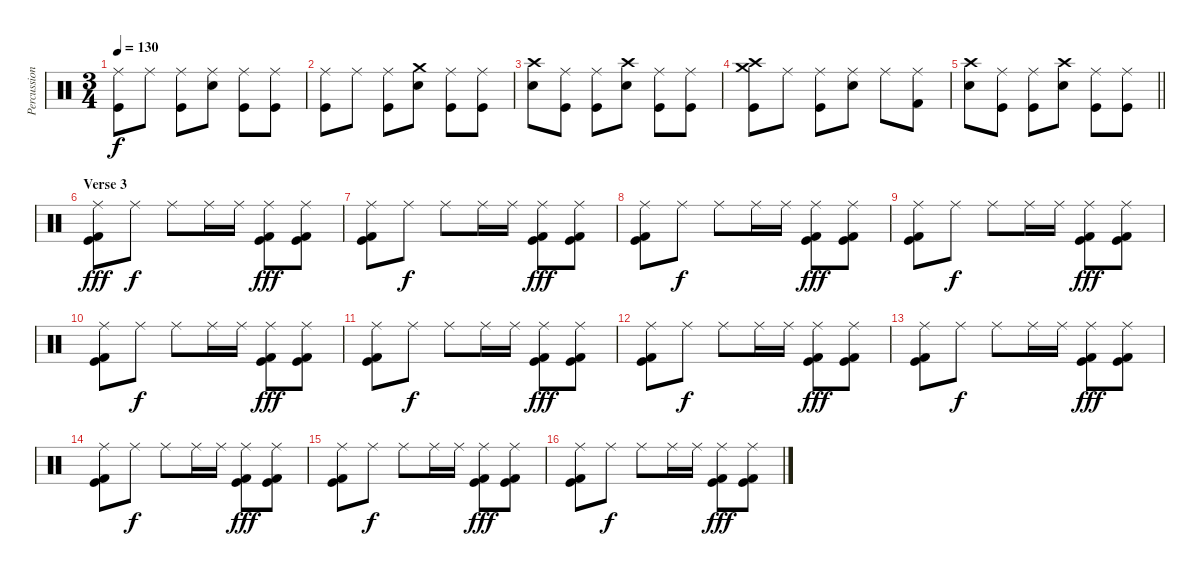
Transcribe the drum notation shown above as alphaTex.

\track ("Percussion" "Percussion") {instrument percussion}
\staff {score}
\articulation defaults
\ts (3 4)
\tempo 130
\clef neutral
\ks c
("Ride (middle)" "Kick (hit)").8{dy f} "Ride (middle)".8 ("Ride (middle)" "Kick (hit)").8 ("Ride (middle)" "Snare (hit) 2").8 ("Ride (middle)" "Kick (hit)").8 ("Ride (middle)" "Kick (hit)").8 |
("Ride (middle)" "Kick (hit)").8 "Ride (middle)".8 ("Ride (middle)" "Kick (hit)").8 ("Crash medium (hit)" "Snare (hit) 2").8 ("Ride (middle)" "Kick (hit)").8 ("Ride (middle)" "Kick (hit)").8 |
("Crash high (hit)" "Snare (hit) 2").8 ("Ride (middle)" "Kick (hit)").8 ("Ride (middle)" "Kick (hit)").8 ("Crash high (hit)" "Snare (hit) 2").8 ("Ride (middle)" "Kick (hit)").8 ("Ride (middle)" "Kick (hit)").8 |
("Crash medium (hit)" "Crash high (hit)" "Kick (hit)").8 "Ride (middle)".8 ("Ride (middle)" "Kick (hit)").8 ("Ride (middle)" "Snare (hit) 2").8 "Ride (middle)".8 ("Ride (middle)" "Kick (hit) 2").8 |
\barLineRight lightlight
("Crash high (hit)" "Snare (hit) 2").8 ("Ride (middle)" "Kick (hit)").8 ("Ride (middle)" "Kick (hit)").8 ("Crash high (hit)" "Snare (hit) 2").8 ("Ride (middle)" "Kick (hit)").8 ("Ride (middle)" "Kick (hit)").8 |
\section ("" "Verse 3")
("Ride (middle)" "Kick (hit)" "Kick (hit) 2").8{dy fff} "Ride (middle)".8{dy f} "Ride (middle)".8 "Ride (middle)".16 "Ride (middle)".16 ("Ride (middle)" "Kick (hit)" "Kick (hit) 2").8{dy fff} ("Ride (middle)" "Kick (hit)" "Kick (hit) 2").8 |
("Ride (middle)" "Kick (hit)" "Kick (hit) 2").8 "Ride (middle)".8{dy f} "Ride (middle)".8 "Ride (middle)".16 "Ride (middle)".16 ("Ride (middle)" "Kick (hit)" "Kick (hit) 2").8{dy fff} ("Ride (middle)" "Kick (hit)" "Kick (hit) 2").8 |
("Ride (middle)" "Kick (hit)" "Kick (hit) 2").8 "Ride (middle)".8{dy f} "Ride (middle)".8 "Ride (middle)".16 "Ride (middle)".16 ("Ride (middle)" "Kick (hit)" "Kick (hit) 2").8{dy fff} ("Ride (middle)" "Kick (hit)" "Kick (hit) 2").8 |
("Ride (middle)" "Kick (hit)" "Kick (hit) 2").8 "Ride (middle)".8{dy f} "Ride (middle)".8 "Ride (middle)".16 "Ride (middle)".16 ("Ride (middle)" "Kick (hit)" "Kick (hit) 2").8{dy fff} ("Ride (middle)" "Kick (hit)" "Kick (hit) 2").8 |
("Ride (middle)" "Kick (hit)" "Kick (hit) 2").8 "Ride (middle)".8{dy f} "Ride (middle)".8 "Ride (middle)".16 "Ride (middle)".16 ("Ride (middle)" "Kick (hit)" "Kick (hit) 2").8{dy fff} ("Ride (middle)" "Kick (hit)" "Kick (hit) 2").8 |
("Ride (middle)" "Kick (hit)" "Kick (hit) 2").8 "Ride (middle)".8{dy f} "Ride (middle)".8 "Ride (middle)".16 "Ride (middle)".16 ("Ride (middle)" "Kick (hit)" "Kick (hit) 2").8{dy fff} ("Ride (middle)" "Kick (hit)" "Kick (hit) 2").8 |
("Ride (middle)" "Kick (hit)" "Kick (hit) 2").8 "Ride (middle)".8{dy f} "Ride (middle)".8 "Ride (middle)".16 "Ride (middle)".16 ("Ride (middle)" "Kick (hit)" "Kick (hit) 2").8{dy fff} ("Ride (middle)" "Kick (hit)" "Kick (hit) 2").8 |
("Ride (middle)" "Kick (hit)" "Kick (hit) 2").8 "Ride (middle)".8{dy f} "Ride (middle)".8 "Ride (middle)".16 "Ride (middle)".16 ("Ride (middle)" "Kick (hit)" "Kick (hit) 2").8{dy fff} ("Ride (middle)" "Kick (hit)" "Kick (hit) 2").8 |
("Ride (middle)" "Kick (hit)" "Kick (hit) 2").8 "Ride (middle)".8{dy f} "Ride (middle)".8 "Ride (middle)".16 "Ride (middle)".16 ("Ride (middle)" "Kick (hit)" "Kick (hit) 2").8{dy fff} ("Ride (middle)" "Kick (hit)" "Kick (hit) 2").8 |
("Ride (middle)" "Kick (hit)" "Kick (hit) 2").8 "Ride (middle)".8{dy f} "Ride (middle)".8 "Ride (middle)".16 "Ride (middle)".16 ("Ride (middle)" "Kick (hit)" "Kick (hit) 2").8{dy fff} ("Ride (middle)" "Kick (hit)" "Kick (hit) 2").8 |
("Ride (middle)" "Kick (hit)" "Kick (hit) 2").8 "Ride (middle)".8{dy f} "Ride (middle)".8 "Ride (middle)".16 "Ride (middle)".16 ("Ride (middle)" "Kick (hit)" "Kick (hit) 2").8{dy fff} ("Ride (middle)" "Kick (hit)" "Kick (hit) 2").8
